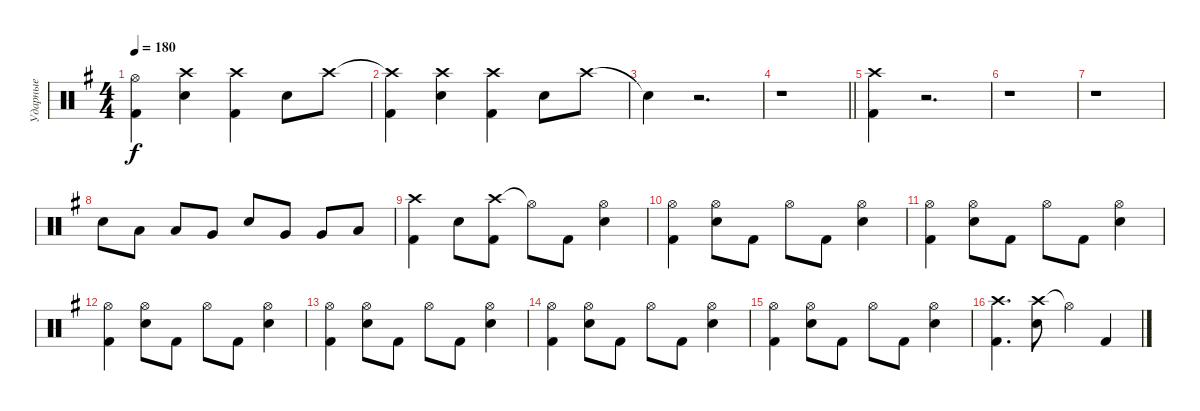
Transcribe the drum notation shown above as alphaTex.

\track ("Ударные" "Ударные") {instrument percussion}
\staff {score}
\articulation defaults
\ts (4 4)
\tempo 180
\clef neutral
\ks g
("Hi-Hat (open)"{t} "Kick (hit) 2").4{dy f} ("Crash high (hit)" "Snare (hit) 2").4 ("Crash high (hit)" "Kick (hit) 2").4 "Snare (hit) 2".8 "Crash high (hit)".8 |
("Crash high (hit)"{t} "Kick (hit) 2").4 ("Crash high (hit)" "Snare (hit) 2").4 ("Crash high (hit)" "Kick (hit) 2").4 "Snare (hit) 2".8 "Crash high (hit)".8 |
"Snare (hit)"{t}.4 r.2{d} |
\barLineRight lightlight
r.1 |
("Kick (hit) 2" "Crash high (hit)").4 r.2{d} |
r.1 |
r.1 |
"Snare (hit) 2".8 "Low Tom (hit)".8 "Low Tom (hit)".8 "Very Low Tom (hit)".8 "Snare (hit) 2".8 "Very Low Tom (hit)".8 "Very Low Tom (hit)".8 "Low Floor Tom (hit)".8 |
("Crash high (hit)" "Kick (hit) 2").4 "Snare (hit) 2".8 ("Crash high (hit)" "Kick (hit) 2").8 "Hi-Hat (open)"{t}.8 "Kick (hit) 2".8 ("Hi-Hat (open)" "Snare (hit) 2").4 |
("Hi-Hat (open)" "Kick (hit) 2").4 ("Hi-Hat (open)" "Snare (hit) 2").8 "Kick (hit) 2".8 "Hi-Hat (open)".8 "Kick (hit) 2".8 ("Hi-Hat (open)" "Snare (hit) 2").4 |
("Hi-Hat (open)" "Kick (hit) 2").4 ("Hi-Hat (open)" "Snare (hit) 2").8 "Kick (hit) 2".8 "Hi-Hat (open)".8 "Kick (hit) 2".8 ("Hi-Hat (open)" "Snare (hit) 2").4 |
("Hi-Hat (open)" "Kick (hit) 2").4 ("Hi-Hat (open)" "Snare (hit) 2").8 "Kick (hit) 2".8 "Hi-Hat (open)".8 "Kick (hit) 2".8 ("Hi-Hat (open)" "Snare (hit) 2").4 |
("Hi-Hat (open)" "Kick (hit) 2").4 ("Hi-Hat (open)" "Snare (hit) 2").8 "Kick (hit) 2".8 "Hi-Hat (open)".8 "Kick (hit) 2".8 ("Hi-Hat (open)" "Snare (hit) 2").4 |
("Hi-Hat (open)" "Kick (hit) 2").4 ("Hi-Hat (open)" "Snare (hit) 2").8 "Kick (hit) 2".8 "Hi-Hat (open)".8 "Kick (hit) 2".8 ("Hi-Hat (open)" "Snare (hit) 2").4 |
("Hi-Hat (open)" "Kick (hit) 2").4 ("Hi-Hat (open)" "Snare (hit) 2").8 "Kick (hit) 2".8 "Hi-Hat (open)".8 "Kick (hit) 2".8 ("Hi-Hat (open)" "Snare (hit) 2").4 |
("Crash high (hit)" "Kick (hit) 2").4{d} ("Crash high (hit)" "Snare (hit) 2").8 "Hi-Hat (open)"{t}.4 "Kick (hit) 2".4
